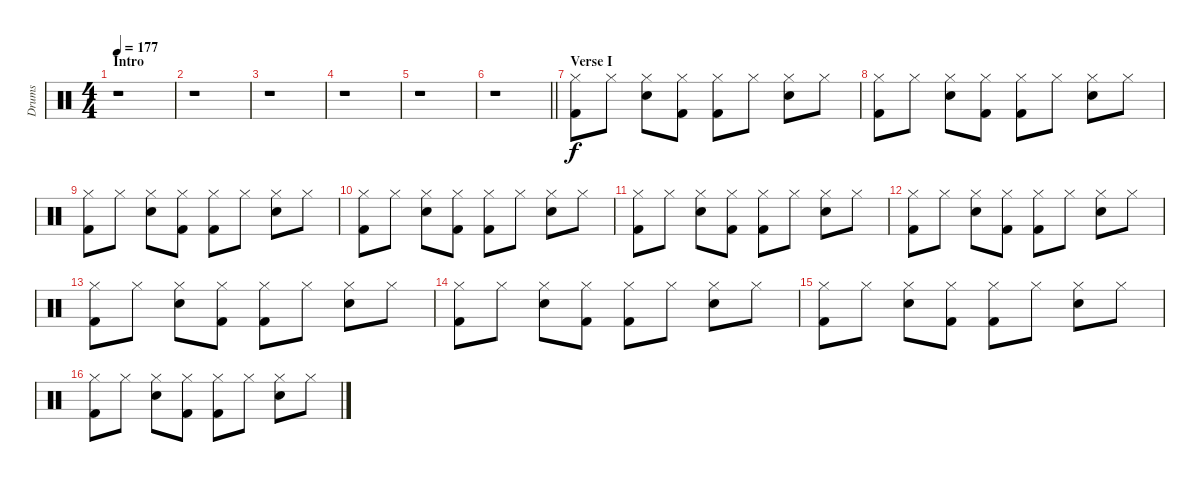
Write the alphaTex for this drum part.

\track ("Drums" "Drums") {instrument percussion}
\staff {score}
\articulation defaults
\ts (4 4)
\section ("" "Intro")
\tempo 177
\clef neutral
\ks c
r.1{dy f} |
r.1 |
r.1 |
r.1 |
r.1 |
\barLineRight lightlight
r.1 |
\section ("" "Verse I")
("Hi-Hat (closed)" "Kick (hit) 2").8 "Hi-Hat (closed)".8 ("Hi-Hat (closed)" "Snare (hit) 2").8 ("Hi-Hat (closed)" "Kick (hit) 2").8 ("Hi-Hat (closed)" "Kick (hit) 2").8 "Hi-Hat (closed)".8 ("Hi-Hat (closed)" "Snare (hit) 2").8 "Hi-Hat (closed)".8 |
("Hi-Hat (closed)" "Kick (hit) 2").8 "Hi-Hat (closed)".8 ("Hi-Hat (closed)" "Snare (hit) 2").8 ("Hi-Hat (closed)" "Kick (hit) 2").8 ("Hi-Hat (closed)" "Kick (hit) 2").8 "Hi-Hat (closed)".8 ("Hi-Hat (closed)" "Snare (hit) 2").8 "Hi-Hat (closed)".8 |
("Hi-Hat (closed)" "Kick (hit) 2").8 "Hi-Hat (closed)".8 ("Hi-Hat (closed)" "Snare (hit) 2").8 ("Hi-Hat (closed)" "Kick (hit) 2").8 ("Hi-Hat (closed)" "Kick (hit) 2").8 "Hi-Hat (closed)".8 ("Hi-Hat (closed)" "Snare (hit) 2").8 "Hi-Hat (closed)".8 |
("Hi-Hat (closed)" "Kick (hit) 2").8 "Hi-Hat (closed)".8 ("Hi-Hat (closed)" "Snare (hit) 2").8 ("Hi-Hat (closed)" "Kick (hit) 2").8 ("Hi-Hat (closed)" "Kick (hit) 2").8 "Hi-Hat (closed)".8 ("Hi-Hat (closed)" "Snare (hit) 2").8 "Hi-Hat (closed)".8 |
("Hi-Hat (closed)" "Kick (hit) 2").8 "Hi-Hat (closed)".8 ("Hi-Hat (closed)" "Snare (hit) 2").8 ("Hi-Hat (closed)" "Kick (hit) 2").8 ("Hi-Hat (closed)" "Kick (hit) 2").8 "Hi-Hat (closed)".8 ("Hi-Hat (closed)" "Snare (hit) 2").8 "Hi-Hat (closed)".8 |
("Hi-Hat (closed)" "Kick (hit) 2").8 "Hi-Hat (closed)".8 ("Hi-Hat (closed)" "Snare (hit) 2").8 ("Hi-Hat (closed)" "Kick (hit) 2").8 ("Hi-Hat (closed)" "Kick (hit) 2").8 "Hi-Hat (closed)".8 ("Hi-Hat (closed)" "Snare (hit) 2").8 "Hi-Hat (closed)".8 |
("Hi-Hat (closed)" "Kick (hit) 2").8 "Hi-Hat (closed)".8 ("Hi-Hat (closed)" "Snare (hit) 2").8 ("Hi-Hat (closed)" "Kick (hit) 2").8 ("Hi-Hat (closed)" "Kick (hit) 2").8 "Hi-Hat (closed)".8 ("Hi-Hat (closed)" "Snare (hit) 2").8 "Hi-Hat (closed)".8 |
("Hi-Hat (closed)" "Kick (hit) 2").8 "Hi-Hat (closed)".8 ("Hi-Hat (closed)" "Snare (hit) 2").8 ("Hi-Hat (closed)" "Kick (hit) 2").8 ("Hi-Hat (closed)" "Kick (hit) 2").8 "Hi-Hat (closed)".8 ("Hi-Hat (closed)" "Snare (hit) 2").8 "Hi-Hat (closed)".8 |
("Hi-Hat (closed)" "Kick (hit) 2").8 "Hi-Hat (closed)".8 ("Hi-Hat (closed)" "Snare (hit) 2").8 ("Hi-Hat (closed)" "Kick (hit) 2").8 ("Hi-Hat (closed)" "Kick (hit) 2").8 "Hi-Hat (closed)".8 ("Hi-Hat (closed)" "Snare (hit) 2").8 "Hi-Hat (closed)".8 |
("Hi-Hat (closed)" "Kick (hit) 2").8 "Hi-Hat (closed)".8 ("Hi-Hat (closed)" "Snare (hit) 2").8 ("Hi-Hat (closed)" "Kick (hit) 2").8 ("Hi-Hat (closed)" "Kick (hit) 2").8 "Hi-Hat (closed)".8 ("Hi-Hat (closed)" "Snare (hit) 2").8 "Hi-Hat (closed)".8
